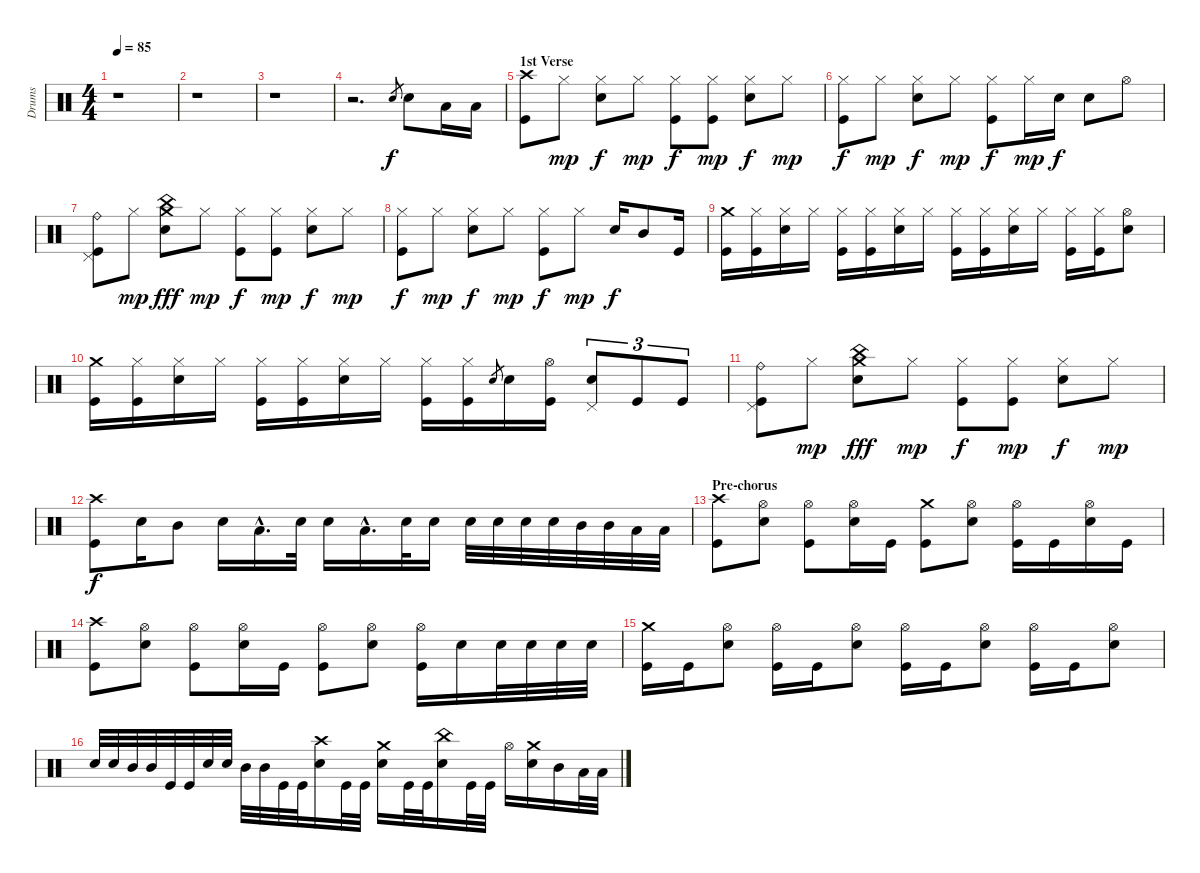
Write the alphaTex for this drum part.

\track ("Drums" "Drums") {instrument percussion}
\staff {score}
\articulation defaults
\ts (4 4)
\tempo 85
\clef neutral
\ks c
r.1{dy fff} |
r.1 |
r.1 |
r.2{d} "Electric Snare (hit)".8{gr dy f} "Electric Snare (hit)".8 "Low Floor Tom (hit)".16 "Low Floor Tom (hit)".16 |
\section ("" "1st Verse")
("Crash high (hit)" "Kick (hit)").8 "Hi-Hat (closed)".8{dy mp} ("Hi-Hat (closed)" "Electric Snare (hit)").8{dy f} "Hi-Hat (closed)".8{dy mp} ("Hi-Hat (closed)" "Kick (hit)").8{dy f} ("Hi-Hat (closed)" "Kick (hit)").8{dy mp} ("Hi-Hat (closed)" "Electric Snare (hit)").8{dy f} "Hi-Hat (closed)".8{dy mp} |
("Hi-Hat (closed)" "Kick (hit)").8{dy f} "Hi-Hat (closed)".8{dy mp} ("Hi-Hat (closed)" "Electric Snare (hit)").8{dy f} "Hi-Hat (closed)".8{dy mp} ("Hi-Hat (closed)" "Kick (hit)").8{dy f} "Hi-Hat (closed)".16{dy mp} "Electric Snare (hit)".16{dy f} "Electric Snare (hit)".8 "Hi-Hat (open)".8 |
("Ride (bell)" "Pedal Hi-Hat (hit)" "Kick (hit)").8 "Hi-Hat (closed)".8{dy mp} ("China (hit)" "Crash medium (hit)" "Electric Snare (hit)").8{dy fff} "Hi-Hat (closed)".8{dy mp} ("Hi-Hat (closed)" "Kick (hit)").8{dy f} ("Hi-Hat (closed)" "Kick (hit)").8{dy mp} ("Hi-Hat (closed)" "Electric Snare (hit)").8{dy f} "Hi-Hat (closed)".8{dy mp} |
("Hi-Hat (closed)" "Kick (hit)").8{dy f} "Hi-Hat (closed)".8{dy mp} ("Hi-Hat (closed)" "Electric Snare (hit)").8{dy f} "Hi-Hat (closed)".8{dy mp} ("Hi-Hat (closed)" "Kick (hit)").8{dy f} "Hi-Hat (closed)".8{dy mp} "Electric Snare (hit)".16{dy f} "Mid Tom (hit)".8 "Kick (hit)".16 |
("Crash medium (hit)" "Kick (hit)").16 ("Hi-Hat (closed)" "Kick (hit)").16 ("Hi-Hat (closed)" "Electric Snare (hit)").16 "Hi-Hat (closed)".16 ("Hi-Hat (closed)" "Kick (hit)").16 ("Hi-Hat (closed)" "Kick (hit)").16 ("Hi-Hat (closed)" "Electric Snare (hit)").16 "Hi-Hat (closed)".16 ("Hi-Hat (closed)" "Kick (hit)").16 ("Hi-Hat (closed)" "Kick (hit)").16 ("Hi-Hat (closed)" "Electric Snare (hit)").16 "Hi-Hat (closed)".16 ("Hi-Hat (closed)" "Kick (hit)").16 ("Hi-Hat (closed)" "Kick (hit)").16 ("Hi-Hat (open)" "Electric Snare (hit)").8 |
("Crash medium (hit)" "Kick (hit)").16 ("Hi-Hat (closed)" "Kick (hit)").16 ("Hi-Hat (closed)" "Electric Snare (hit)").16 "Hi-Hat (closed)".16 ("Hi-Hat (closed)" "Kick (hit)").16 ("Hi-Hat (closed)" "Kick (hit)").16 ("Hi-Hat (closed)" "Electric Snare (hit)").16 "Hi-Hat (closed)".16 ("Hi-Hat (closed)" "Kick (hit)").16 ("Hi-Hat (closed)" "Kick (hit)").16 "Electric Snare (hit)".8{gr} "Electric Snare (hit)".16 ("Hi-Hat (open)" "Kick (hit)").16 ("Electric Snare (hit)" "Pedal Hi-Hat (hit)").8{tu (3 2)} "Kick (hit)".8{tu (3 2)} "Kick (hit)".8{tu (3 2)} |
("Ride (bell)" "Pedal Hi-Hat (hit)" "Kick (hit)").8 "Hi-Hat (closed)".8{dy mp} ("China (hit)" "Crash medium (hit)" "Electric Snare (hit)").8{dy fff} "Hi-Hat (closed)".8{dy mp} ("Hi-Hat (closed)" "Kick (hit)").8{dy f} ("Hi-Hat (closed)" "Kick (hit)").8{dy mp} ("Hi-Hat (closed)" "Electric Snare (hit)").8{dy f} "Hi-Hat (closed)".8{dy mp} |
("Crash high (hit)" "Kick (hit)").8{dy f} "Electric Snare (hit)".16 "Mid Tom (hit)".8 "Electric Snare (hit)".16 "Low Tom (hit)"{hac}.16{d} "Electric Snare (hit)".32 "Electric Snare (hit)".16 "Low Tom (hit)"{hac}.16{d} "Electric Snare (hit)".32 "Electric Snare (hit)".16 "Electric Snare (hit)".32 "Electric Snare (hit)".32 "Electric Snare (hit)".32 "Electric Snare (hit)".32 "Mid Tom (hit)".32 "Mid Tom (hit)".32 "Low Tom (hit)".32 "Low Tom (hit)".32 |
\section ("" "Pre-chorus")
("Crash high (hit)" "Kick (hit)").8 ("Hi-Hat (open)" "Electric Snare (hit)").8 ("Hi-Hat (open)" "Kick (hit)").8 ("Hi-Hat (open)" "Electric Snare (hit)").16 "Kick (hit)".16 ("Crash medium (hit)" "Kick (hit)").8 ("Hi-Hat (open)" "Electric Snare (hit)").8 ("Hi-Hat (open)" "Kick (hit)").16 "Kick (hit)".16 ("Hi-Hat (open)" "Electric Snare (hit)").16 "Kick (hit)".16 |
("Crash high (hit)" "Kick (hit)").8 ("Hi-Hat (open)" "Electric Snare (hit)").8 ("Hi-Hat (open)" "Kick (hit)").8 ("Hi-Hat (open)" "Electric Snare (hit)").16 "Kick (hit)".16 ("Hi-Hat (open)" "Kick (hit)").8 ("Hi-Hat (open)" "Electric Snare (hit)").8 ("Hi-Hat (open)" "Kick (hit)").16 "Electric Snare (hit)".16 "Electric Snare (hit)".32 "Electric Snare (hit)".32 "Electric Snare (hit)".32 "Electric Snare (hit)".32 |
("Crash medium (hit)" "Kick (hit)").16 "Kick (hit)".16 ("Hi-Hat (open)" "Electric Snare (hit)").8 ("Hi-Hat (open)" "Kick (hit)").16 "Kick (hit)".16 ("Hi-Hat (open)" "Electric Snare (hit)").8 ("Hi-Hat (open)" "Kick (hit)").16 "Kick (hit)".16 ("Hi-Hat (open)" "Electric Snare (hit)").8 ("Hi-Hat (open)" "Kick (hit)").16 "Kick (hit)".16 ("Hi-Hat (open)" "Electric Snare (hit)").8 |
"Electric Snare (hit)".32 "Electric Snare (hit)".32 "Mid Tom (hit)".32 "Mid Tom (hit)".32 "Kick (hit)".32 "Kick (hit)".32 "Electric Snare (hit)".32 "Electric Snare (hit)".32 "Mid Tom (hit)".32 "Mid Tom (hit)".32 "Kick (hit)".32 "Kick (hit)".32 ("Crash high (hit)" "Electric Snare (hit)").16 "Kick (hit)".32 "Kick (hit)".32 ("Crash medium (hit)" "Electric Snare (hit)").16 "Kick (hit)".32 "Kick (hit)".32 ("China (hit)" "Electric Snare (hit)").16 "Kick (hit)".32 "Kick (hit)".32 "Hi-Hat (open)".16 ("Crash medium (hit)" "Electric Snare (hit)").16 "Mid Tom (hit)".16 "Low Tom (hit)".32 "Low Tom (hit)".32
